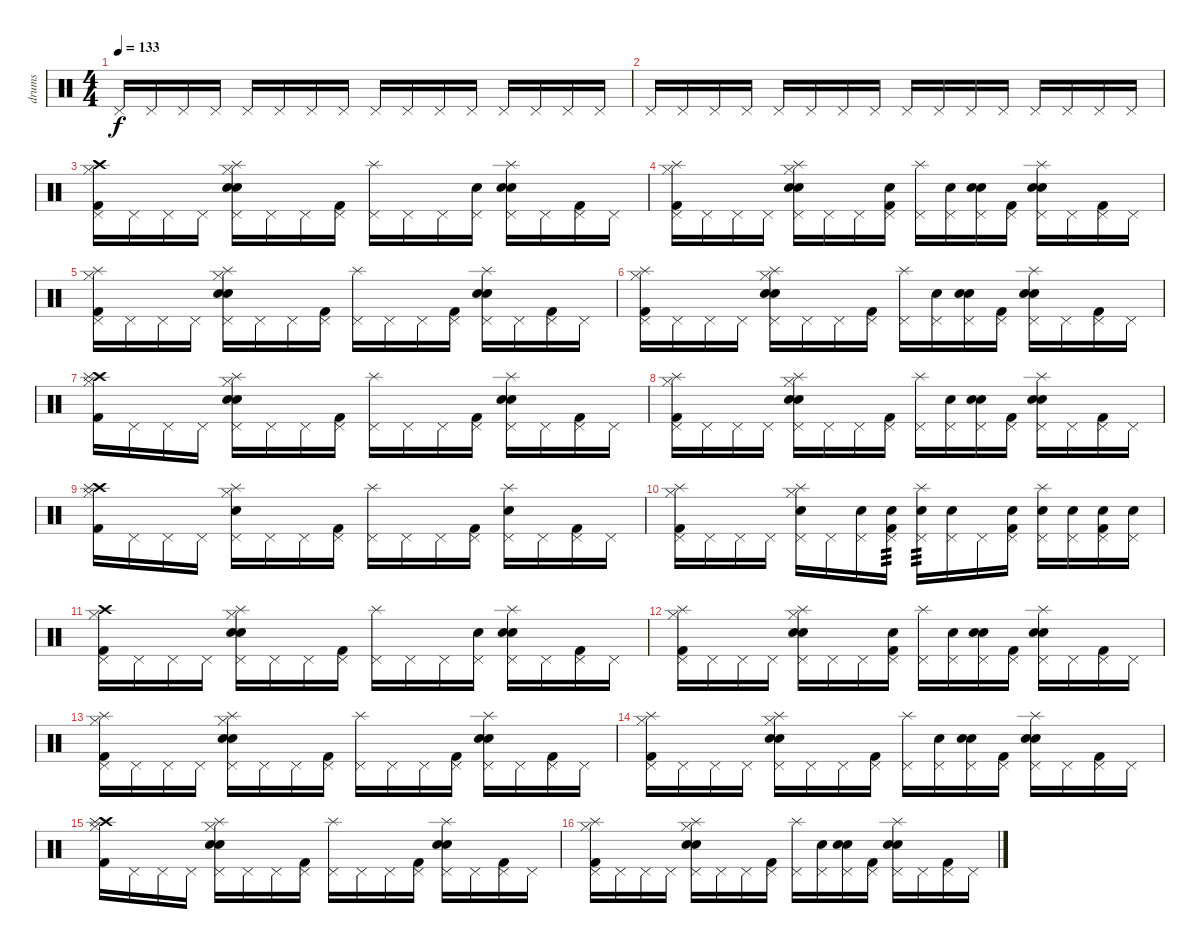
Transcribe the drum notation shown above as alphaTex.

\track ("drums" "drums") {instrument percussion}
\staff {score}
\articulation defaults
\ts (4 4)
\tempo 133
\clef neutral
\ks c "Pedal Hi-Hat (hit)".16{dy f} "Pedal Hi-Hat (hit)".16 "Pedal Hi-Hat (hit)".16 "Pedal Hi-Hat (hit)".16 "Pedal Hi-Hat (hit)".16 "Pedal Hi-Hat (hit)".16 "Pedal Hi-Hat (hit)".16 "Pedal Hi-Hat (hit)".16 "Pedal Hi-Hat (hit)".16 "Pedal Hi-Hat (hit)".16 "Pedal Hi-Hat (hit)".16 "Pedal Hi-Hat (hit)".16 "Pedal Hi-Hat (hit)".16 "Pedal Hi-Hat (hit)".16 "Pedal Hi-Hat (hit)".16 "Pedal Hi-Hat (hit)".16
|
"Pedal Hi-Hat (hit)".16 "Pedal Hi-Hat (hit)".16 "Pedal Hi-Hat (hit)".16 "Pedal Hi-Hat (hit)".16 "Pedal Hi-Hat (hit)".16 "Pedal Hi-Hat (hit)".16 "Pedal Hi-Hat (hit)".16 "Pedal Hi-Hat (hit)".16 "Pedal Hi-Hat (hit)".16 "Pedal Hi-Hat (hit)".16 "Pedal Hi-Hat (hit)".16 "Pedal Hi-Hat (hit)".16 "Pedal Hi-Hat (hit)".16 "Pedal Hi-Hat (hit)".16 "Pedal Hi-Hat (hit)".16 "Pedal Hi-Hat (hit)".16 |
("Kick (hit) 2" "Hi-Hat (closed)" "Pedal Hi-Hat (hit)" "Crash high (hit)").16 "Pedal Hi-Hat (hit)".16 "Pedal Hi-Hat (hit)".16 "Pedal Hi-Hat (hit)".16 ("Snare (hit) 2" "Hi-Hat (closed)" "Pedal Hi-Hat (hit)" "Hand Clap (hit)" "Splash (hit)").16 "Pedal Hi-Hat (hit)".16 "Pedal Hi-Hat (hit)".16 ("Kick (hit) 2" "Pedal Hi-Hat (hit)").16 ("Pedal Hi-Hat (hit)" "Splash (hit)").16 "Pedal Hi-Hat (hit)".16 "Pedal Hi-Hat (hit)".16 ("Pedal Hi-Hat (hit)" "Hand Clap (hit)").16 ("Snare (hit) 2" "Pedal Hi-Hat (hit)" "Hand Clap (hit)" "Splash (hit)").16 "Pedal Hi-Hat (hit)".16 ("Kick (hit) 2" "Pedal Hi-Hat (hit)").16 "Pedal Hi-Hat (hit)".16 |
("Kick (hit) 2" "Hi-Hat (closed)" "Pedal Hi-Hat (hit)" "Splash (hit)").16 "Pedal Hi-Hat (hit)".16 "Pedal Hi-Hat (hit)".16 "Pedal Hi-Hat (hit)".16 ("Snare (hit) 2" "Hi-Hat (closed)" "Pedal Hi-Hat (hit)" "Hand Clap (hit)" "Splash (hit)").16 "Pedal Hi-Hat (hit)".16 "Pedal Hi-Hat (hit)".16 ("Kick (hit) 2" "Pedal Hi-Hat (hit)" "Hand Clap (hit)").16 ("Pedal Hi-Hat (hit)" "Splash (hit)").16 ("Snare (hit) 2" "Pedal Hi-Hat (hit)").16 ("Snare (hit) 2" "Pedal Hi-Hat (hit)" "Hand Clap (hit)").16 ("Kick (hit) 2" "Pedal Hi-Hat (hit)").16 ("Snare (hit) 2" "Pedal Hi-Hat (hit)" "Hand Clap (hit)" "Splash (hit)").16 "Pedal Hi-Hat (hit)".16 ("Kick (hit) 2" "Pedal Hi-Hat (hit)").16 "Pedal Hi-Hat (hit)".16 |
("Kick (hit) 2" "Hi-Hat (closed)" "Pedal Hi-Hat (hit)" "Splash (hit)").16 "Pedal Hi-Hat (hit)".16 "Pedal Hi-Hat (hit)".16 "Pedal Hi-Hat (hit)".16 ("Snare (hit) 2" "Hi-Hat (closed)" "Pedal Hi-Hat (hit)" "Hand Clap (hit)" "Splash (hit)").16 "Pedal Hi-Hat (hit)".16 "Pedal Hi-Hat (hit)".16 ("Kick (hit) 2" "Pedal Hi-Hat (hit)").16 ("Pedal Hi-Hat (hit)" "Splash (hit)").16 "Pedal Hi-Hat (hit)".16 "Pedal Hi-Hat (hit)".16 ("Kick (hit) 2" "Pedal Hi-Hat (hit)").16 ("Snare (hit) 2" "Pedal Hi-Hat (hit)" "Hand Clap (hit)" "Splash (hit)").16 "Pedal Hi-Hat (hit)".16 ("Kick (hit) 2" "Pedal Hi-Hat (hit)").16 "Pedal Hi-Hat (hit)".16 |
("Kick (hit) 2" "Hi-Hat (closed)" "Pedal Hi-Hat (hit)" "Splash (hit)").16 "Pedal Hi-Hat (hit)".16 "Pedal Hi-Hat (hit)".16 "Pedal Hi-Hat (hit)".16 ("Snare (hit) 2" "Hi-Hat (closed)" "Pedal Hi-Hat (hit)" "Hand Clap (hit)" "Splash (hit)").16 "Pedal Hi-Hat (hit)".16 "Pedal Hi-Hat (hit)".16 ("Kick (hit) 2" "Pedal Hi-Hat (hit)").16 ("Pedal Hi-Hat (hit)" "Splash (hit)").16 ("Snare (hit) 2" "Pedal Hi-Hat (hit)").16 ("Snare (hit) 2" "Pedal Hi-Hat (hit)" "Hand Clap (hit)").16 ("Kick (hit) 2" "Pedal Hi-Hat (hit)").16 ("Snare (hit) 2" "Pedal Hi-Hat (hit)" "Hand Clap (hit)" "Splash (hit)").16 "Pedal Hi-Hat (hit)".16 ("Kick (hit) 2" "Pedal Hi-Hat (hit)").16 "Pedal Hi-Hat (hit)".16 |
("Kick (hit) 2" "Hi-Hat (closed)" "Crash high (hit)" "Splash (hit)").16 "Pedal Hi-Hat (hit)".16 "Pedal Hi-Hat (hit)".16 "Pedal Hi-Hat (hit)".16 ("Snare (hit) 2" "Hi-Hat (closed)" "Pedal Hi-Hat (hit)" "Hand Clap (hit)" "Splash (hit)").16 "Pedal Hi-Hat (hit)".16 "Pedal Hi-Hat (hit)".16 ("Kick (hit) 2" "Pedal Hi-Hat (hit)").16 ("Pedal Hi-Hat (hit)" "Splash (hit)").16 "Pedal Hi-Hat (hit)".16 "Pedal Hi-Hat (hit)".16 ("Kick (hit) 2" "Pedal Hi-Hat (hit)").16 ("Snare (hit) 2" "Pedal Hi-Hat (hit)" "Hand Clap (hit)" "Splash (hit)").16 "Pedal Hi-Hat (hit)".16 ("Kick (hit) 2" "Pedal Hi-Hat (hit)").16 "Pedal Hi-Hat (hit)".16 |
("Kick (hit) 2" "Hi-Hat (closed)" "Pedal Hi-Hat (hit)" "Splash (hit)").16 "Pedal Hi-Hat (hit)".16 "Pedal Hi-Hat (hit)".16 "Pedal Hi-Hat (hit)".16 ("Snare (hit) 2" "Hi-Hat (closed)" "Pedal Hi-Hat (hit)" "Hand Clap (hit)" "Splash (hit)").16 "Pedal Hi-Hat (hit)".16 "Pedal Hi-Hat (hit)".16 ("Kick (hit) 2" "Pedal Hi-Hat (hit)").16 ("Pedal Hi-Hat (hit)" "Splash (hit)").16 ("Snare (hit) 2" "Pedal Hi-Hat (hit)").16 ("Snare (hit) 2" "Pedal Hi-Hat (hit)" "Hand Clap (hit)").16 ("Kick (hit) 2" "Pedal Hi-Hat (hit)").16 ("Snare (hit) 2" "Pedal Hi-Hat (hit)" "Hand Clap (hit)" "Splash (hit)").16 "Pedal Hi-Hat (hit)".16 ("Kick (hit) 2" "Pedal Hi-Hat (hit)").16 "Pedal Hi-Hat (hit)".16 |
("Kick (hit) 2" "Hi-Hat (closed)" "Crash high (hit)" "Splash (hit)").16 "Pedal Hi-Hat (hit)".16 "Pedal Hi-Hat (hit)".16 "Pedal Hi-Hat (hit)".16 ("Snare (hit) 2" "Hi-Hat (closed)" "Pedal Hi-Hat (hit)" "Splash (hit)").16 "Pedal Hi-Hat (hit)".16 "Pedal Hi-Hat (hit)".16 ("Kick (hit) 2" "Pedal Hi-Hat (hit)").16 ("Pedal Hi-Hat (hit)" "Splash (hit)").16 "Pedal Hi-Hat (hit)".16 "Pedal Hi-Hat (hit)".16 ("Kick (hit) 2" "Pedal Hi-Hat (hit)").16 ("Snare (hit) 2" "Pedal Hi-Hat (hit)" "Splash (hit)").16 "Pedal Hi-Hat (hit)".16 ("Kick (hit) 2" "Pedal Hi-Hat (hit)").16 "Pedal Hi-Hat (hit)".16 |
("Kick (hit) 2" "Hi-Hat (closed)" "Pedal Hi-Hat (hit)" "Splash (hit)").16 "Pedal Hi-Hat (hit)".16 "Pedal Hi-Hat (hit)".16 "Pedal Hi-Hat (hit)".16 ("Snare (hit) 2" "Hi-Hat (closed)" "Pedal Hi-Hat (hit)" "Splash (hit)").16 "Pedal Hi-Hat (hit)".16 ("Snare (hit) 2" "Pedal Hi-Hat (hit)").16 ("Snare (hit) 2" "Kick (hit) 2" "Pedal Hi-Hat (hit)").16{tp 3} ("Snare (hit) 2" "Pedal Hi-Hat (hit)" "Splash (hit)").16{tp 3} ("Snare (hit) 2" "Pedal Hi-Hat (hit)").16 "Pedal Hi-Hat (hit)".16 ("Snare (hit) 2" "Kick (hit) 2" "Pedal Hi-Hat (hit)").16 ("Snare (hit) 2" "Pedal Hi-Hat (hit)" "Splash (hit)").16 ("Snare (hit) 2" "Pedal Hi-Hat (hit)").16 ("Snare (hit) 2" "Kick (hit) 2" "Pedal Hi-Hat (hit)").16 ("Snare (hit) 2" "Pedal Hi-Hat (hit)").16 |
("Kick (hit) 2" "Hi-Hat (closed)" "Pedal Hi-Hat (hit)" "Crash high (hit)").16 "Pedal Hi-Hat (hit)".16 "Pedal Hi-Hat (hit)".16 "Pedal Hi-Hat (hit)".16 ("Snare (hit) 2" "Hi-Hat (closed)" "Pedal Hi-Hat (hit)" "Hand Clap (hit)" "Splash (hit)").16 "Pedal Hi-Hat (hit)".16 "Pedal Hi-Hat (hit)".16 ("Kick (hit) 2" "Pedal Hi-Hat (hit)").16 ("Pedal Hi-Hat (hit)" "Splash (hit)").16 "Pedal Hi-Hat (hit)".16 "Pedal Hi-Hat (hit)".16 ("Pedal Hi-Hat (hit)" "Hand Clap (hit)").16 ("Snare (hit) 2" "Pedal Hi-Hat (hit)" "Hand Clap (hit)" "Splash (hit)").16 "Pedal Hi-Hat (hit)".16 ("Kick (hit) 2" "Pedal Hi-Hat (hit)").16 "Pedal Hi-Hat (hit)".16 |
("Kick (hit) 2" "Hi-Hat (closed)" "Pedal Hi-Hat (hit)" "Splash (hit)").16 "Pedal Hi-Hat (hit)".16 "Pedal Hi-Hat (hit)".16 "Pedal Hi-Hat (hit)".16 ("Snare (hit) 2" "Hi-Hat (closed)" "Pedal Hi-Hat (hit)" "Hand Clap (hit)" "Splash (hit)").16 "Pedal Hi-Hat (hit)".16 "Pedal Hi-Hat (hit)".16 ("Kick (hit) 2" "Pedal Hi-Hat (hit)" "Hand Clap (hit)").16 ("Pedal Hi-Hat (hit)" "Splash (hit)").16 ("Snare (hit) 2" "Pedal Hi-Hat (hit)").16 ("Snare (hit) 2" "Pedal Hi-Hat (hit)" "Hand Clap (hit)").16 ("Kick (hit) 2" "Pedal Hi-Hat (hit)").16 ("Snare (hit) 2" "Pedal Hi-Hat (hit)" "Hand Clap (hit)" "Splash (hit)").16 "Pedal Hi-Hat (hit)".16 ("Kick (hit) 2" "Pedal Hi-Hat (hit)").16 "Pedal Hi-Hat (hit)".16 |
("Kick (hit) 2" "Hi-Hat (closed)" "Pedal Hi-Hat (hit)" "Splash (hit)").16 "Pedal Hi-Hat (hit)".16 "Pedal Hi-Hat (hit)".16 "Pedal Hi-Hat (hit)".16 ("Snare (hit) 2" "Hi-Hat (closed)" "Pedal Hi-Hat (hit)" "Hand Clap (hit)" "Splash (hit)").16 "Pedal Hi-Hat (hit)".16 "Pedal Hi-Hat (hit)".16 ("Kick (hit) 2" "Pedal Hi-Hat (hit)").16 ("Pedal Hi-Hat (hit)" "Splash (hit)").16 "Pedal Hi-Hat (hit)".16 "Pedal Hi-Hat (hit)".16 ("Kick (hit) 2" "Pedal Hi-Hat (hit)").16 ("Snare (hit) 2" "Pedal Hi-Hat (hit)" "Hand Clap (hit)" "Splash (hit)").16 "Pedal Hi-Hat (hit)".16 ("Kick (hit) 2" "Pedal Hi-Hat (hit)").16 "Pedal Hi-Hat (hit)".16 |
("Kick (hit) 2" "Hi-Hat (closed)" "Pedal Hi-Hat (hit)" "Splash (hit)").16 "Pedal Hi-Hat (hit)".16 "Pedal Hi-Hat (hit)".16 "Pedal Hi-Hat (hit)".16 ("Snare (hit) 2" "Hi-Hat (closed)" "Pedal Hi-Hat (hit)" "Hand Clap (hit)" "Splash (hit)").16 "Pedal Hi-Hat (hit)".16 "Pedal Hi-Hat (hit)".16 ("Kick (hit) 2" "Pedal Hi-Hat (hit)").16 ("Pedal Hi-Hat (hit)" "Splash (hit)").16 ("Snare (hit) 2" "Pedal Hi-Hat (hit)").16 ("Snare (hit) 2" "Pedal Hi-Hat (hit)" "Hand Clap (hit)").16 ("Kick (hit) 2" "Pedal Hi-Hat (hit)").16 ("Snare (hit) 2" "Pedal Hi-Hat (hit)" "Hand Clap (hit)" "Splash (hit)").16 "Pedal Hi-Hat (hit)".16 ("Kick (hit) 2" "Pedal Hi-Hat (hit)").16 "Pedal Hi-Hat (hit)".16 |
("Kick (hit) 2" "Hi-Hat (closed)" "Crash high (hit)" "Splash (hit)").16 "Pedal Hi-Hat (hit)".16 "Pedal Hi-Hat (hit)".16 "Pedal Hi-Hat (hit)".16 ("Snare (hit) 2" "Hi-Hat (closed)" "Pedal Hi-Hat (hit)" "Hand Clap (hit)" "Splash (hit)").16 "Pedal Hi-Hat (hit)".16 "Pedal Hi-Hat (hit)".16 ("Kick (hit) 2" "Pedal Hi-Hat (hit)").16 ("Pedal Hi-Hat (hit)" "Splash (hit)").16 "Pedal Hi-Hat (hit)".16 "Pedal Hi-Hat (hit)".16 ("Kick (hit) 2" "Pedal Hi-Hat (hit)").16 ("Snare (hit) 2" "Pedal Hi-Hat (hit)" "Hand Clap (hit)" "Splash (hit)").16 "Pedal Hi-Hat (hit)".16 ("Kick (hit) 2" "Pedal Hi-Hat (hit)").16 "Pedal Hi-Hat (hit)".16 |
("Kick (hit) 2" "Hi-Hat (closed)" "Pedal Hi-Hat (hit)" "Splash (hit)").16 "Pedal Hi-Hat (hit)".16 "Pedal Hi-Hat (hit)".16 "Pedal Hi-Hat (hit)".16 ("Snare (hit) 2" "Hi-Hat (closed)" "Pedal Hi-Hat (hit)" "Hand Clap (hit)" "Splash (hit)").16 "Pedal Hi-Hat (hit)".16 "Pedal Hi-Hat (hit)".16 ("Kick (hit) 2" "Pedal Hi-Hat (hit)").16 ("Pedal Hi-Hat (hit)" "Splash (hit)").16 ("Snare (hit) 2" "Pedal Hi-Hat (hit)").16 ("Snare (hit) 2" "Pedal Hi-Hat (hit)" "Hand Clap (hit)").16 ("Kick (hit) 2" "Pedal Hi-Hat (hit)").16 ("Snare (hit) 2" "Pedal Hi-Hat (hit)" "Hand Clap (hit)" "Splash (hit)").16 "Pedal Hi-Hat (hit)".16 ("Kick (hit) 2" "Pedal Hi-Hat (hit)").16 "Pedal Hi-Hat (hit)".16
